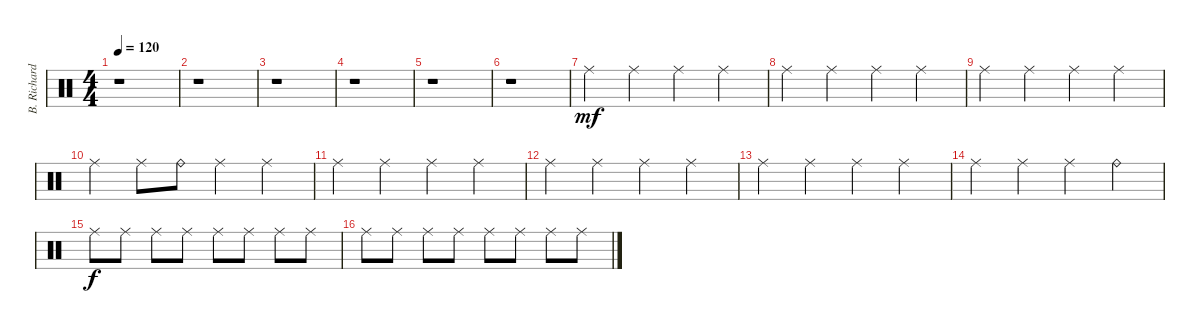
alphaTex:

\track ("B. Richardson Drums" "B. Richard") {instrument percussion}
\staff {score}
\articulation defaults
\ts (4 4)
\tempo 120
\clef neutral
\ks c
r.1{dy mf} |
r.1 |
r.1 |
r.1 |
r.1 |
r.1{volume 16} |
"Ride (middle)".4 "Ride (middle)".4 "Ride (middle)".4 "Ride (middle)".4 |
"Ride (middle)".4 "Ride (middle)".4 "Ride (middle)".4 "Ride (middle)".4 |
"Ride (middle)".4 "Ride (middle)".4 "Ride (middle)".4 "Ride (middle)".4 |
"Ride (middle)".4 "Ride (middle)".8 "Ride (bell)".8 "Ride (middle)".4 "Ride (middle)".4 |
"Ride (middle)".4 "Ride (middle)".4 "Ride (middle)".4 "Ride (middle)".4 |
"Ride (middle)".4 "Ride (middle)".4 "Ride (middle)".4 "Ride (middle)".4 |
"Ride (middle)".4 "Ride (middle)".4 "Ride (middle)".4 "Ride (middle)".4 |
"Ride (middle)".4 "Ride (middle)".4 "Ride (middle)".4 "Ride (bell)".4{volume 5} |
"Ride (middle)".8{dy f volume 16} "Ride (middle)".8 "Ride (middle)".8 "Ride (middle)".8 "Ride (middle)".8 "Ride (middle)".8 "Ride (middle)".8 "Ride (middle)".8 |
"Ride (middle)".8 "Ride (middle)".8 "Ride (middle)".8 "Ride (middle)".8 "Ride (middle)".8 "Ride (middle)".8 "Ride (middle)".8 "Ride (middle)".8
